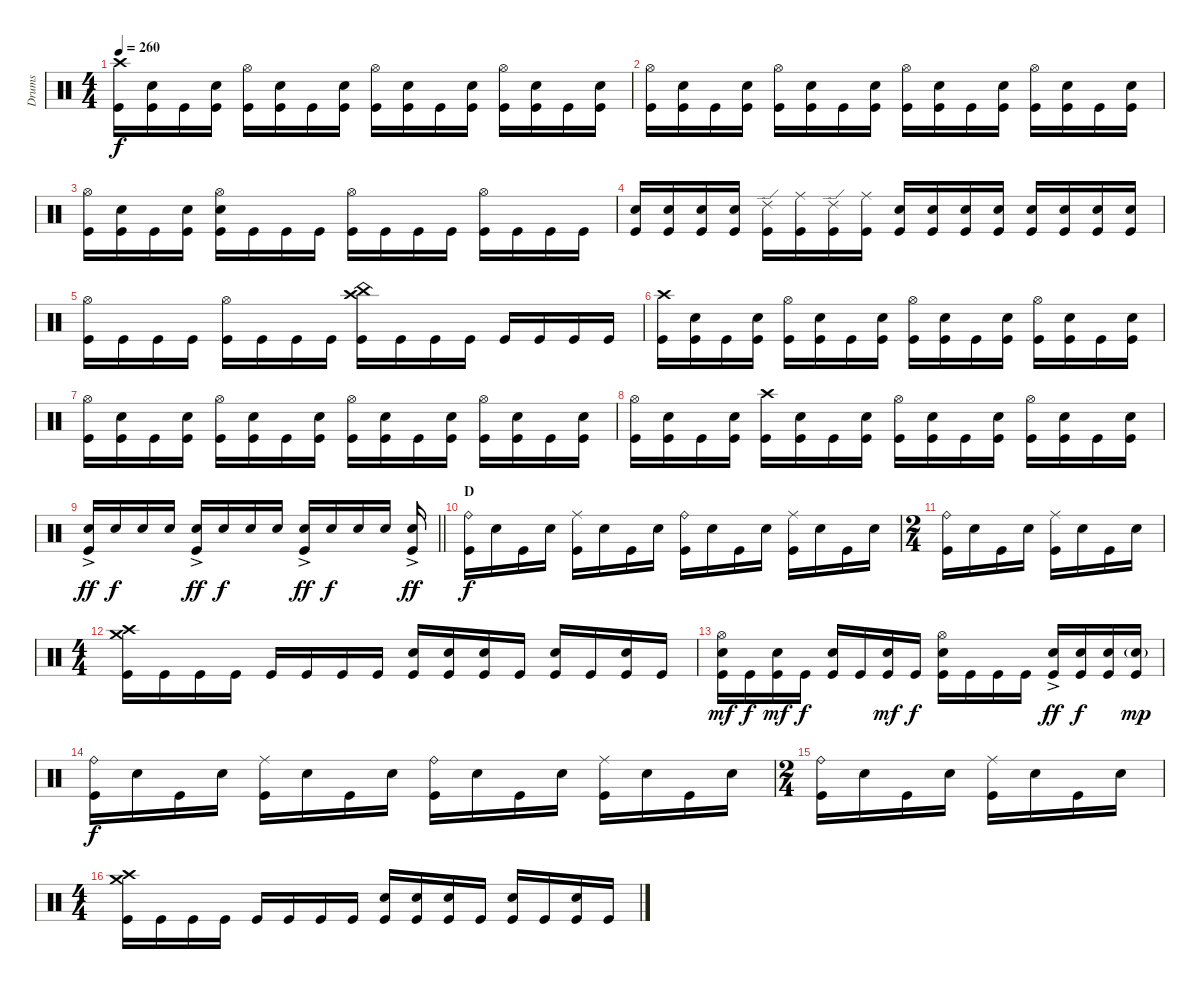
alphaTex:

\track ("Drums" "Drums") {instrument percussion}
\staff {score}
\articulation defaults
\ts (4 4)
\tempo 260
\clef neutral
\ks c
("Crash high (hit)" "Kick (hit)").16{dy f} ("Electric Snare (hit)" "Kick (hit)").16 "Kick (hit)".16 ("Electric Snare (hit)" "Kick (hit)").16 ("Hi-Hat (open)" "Kick (hit)").16 ("Electric Snare (hit)" "Kick (hit)").16 "Kick (hit)".16 ("Electric Snare (hit)" "Kick (hit)").16 ("Hi-Hat (open)" "Kick (hit)").16 ("Electric Snare (hit)" "Kick (hit)").16 "Kick (hit)".16 ("Electric Snare (hit)" "Kick (hit)").16 ("Hi-Hat (open)" "Kick (hit)").16 ("Electric Snare (hit)" "Kick (hit)").16 "Kick (hit)".16 ("Electric Snare (hit)" "Kick (hit)").16 |
("Hi-Hat (open)" "Kick (hit)").16 ("Electric Snare (hit)" "Kick (hit)").16 "Kick (hit)".16 ("Electric Snare (hit)" "Kick (hit)").16 ("Hi-Hat (open)" "Kick (hit)").16 ("Electric Snare (hit)" "Kick (hit)").16 "Kick (hit)".16 ("Electric Snare (hit)" "Kick (hit)").16 ("Hi-Hat (open)" "Kick (hit)").16 ("Electric Snare (hit)" "Kick (hit)").16 "Kick (hit)".16 ("Electric Snare (hit)" "Kick (hit)").16 ("Hi-Hat (open)" "Kick (hit)").16 ("Electric Snare (hit)" "Kick (hit)").16 "Kick (hit)".16 ("Electric Snare (hit)" "Kick (hit)").16 |
("Hi-Hat (open)" "Kick (hit)").16 ("Electric Snare (hit)" "Kick (hit)").16 "Kick (hit)".16 ("Electric Snare (hit)" "Kick (hit)").16 ("Hi-Hat (open)" "Electric Snare (hit)" "Kick (hit)").16 "Kick (hit)".16 "Kick (hit)".16 "Kick (hit)".16 ("Hi-Hat (open)" "Kick (hit)").16 "Kick (hit)".16 "Kick (hit)".16 "Kick (hit)".16 ("Hi-Hat (open)" "Kick (hit)").16 "Kick (hit)".16 "Kick (hit)".16 "Kick (hit)".16 |
("Electric Snare (hit)" "Kick (hit)").16 ("Electric Snare (hit)" "Kick (hit)").16 ("Electric Snare (hit)" "Kick (hit)").16 ("Electric Snare (hit)" "Kick (hit)").16 ("Ride (edge) 2" "Kick (hit)").16 ("Ride (middle)" "Kick (hit)").16 ("Ride (edge) 2" "Kick (hit)").16 ("Ride (middle)" "Kick (hit)").16 ("Electric Snare (hit)" "Kick (hit)").16 ("Electric Snare (hit)" "Kick (hit)").16 ("Electric Snare (hit)" "Kick (hit)").16 ("Electric Snare (hit)" "Kick (hit)").16 ("Electric Snare (hit)" "Kick (hit)").16 ("Electric Snare (hit)" "Kick (hit)").16 ("Electric Snare (hit)" "Kick (hit)").16 ("Electric Snare (hit)" "Kick (hit)").16 |
("Hi-Hat (open)" "Kick (hit)").16 "Kick (hit)".16 "Kick (hit)".16 "Kick (hit)".16 ("Hi-Hat (open)" "Kick (hit)").16 "Kick (hit)".16 "Kick (hit)".16 "Kick (hit)".16 ("China (hit)" "Crash high (hit)" "Kick (hit)").16 "Kick (hit)".16 "Kick (hit)".16 "Kick (hit)".16 "Kick (hit)".16 "Kick (hit)".16 "Kick (hit)".16 "Kick (hit)".16 |
("Crash high (hit)" "Kick (hit)").16 ("Electric Snare (hit)" "Kick (hit)").16 "Kick (hit)".16 ("Electric Snare (hit)" "Kick (hit)").16 ("Hi-Hat (open)" "Kick (hit)").16 ("Electric Snare (hit)" "Kick (hit)").16 "Kick (hit)".16 ("Electric Snare (hit)" "Kick (hit)").16 ("Hi-Hat (open)" "Kick (hit)").16 ("Electric Snare (hit)" "Kick (hit)").16 "Kick (hit)".16 ("Electric Snare (hit)" "Kick (hit)").16 ("Hi-Hat (open)" "Kick (hit)").16 ("Electric Snare (hit)" "Kick (hit)").16 "Kick (hit)".16 ("Electric Snare (hit)" "Kick (hit)").16 |
("Hi-Hat (open)" "Kick (hit)").16 ("Electric Snare (hit)" "Kick (hit)").16 "Kick (hit)".16 ("Electric Snare (hit)" "Kick (hit)").16 ("Hi-Hat (open)" "Kick (hit)").16 ("Electric Snare (hit)" "Kick (hit)").16 "Kick (hit)".16 ("Electric Snare (hit)" "Kick (hit)").16 ("Hi-Hat (open)" "Kick (hit)").16 ("Electric Snare (hit)" "Kick (hit)").16 "Kick (hit)".16 ("Electric Snare (hit)" "Kick (hit)").16 ("Hi-Hat (open)" "Kick (hit)").16 ("Electric Snare (hit)" "Kick (hit)").16 "Kick (hit)".16 ("Electric Snare (hit)" "Kick (hit)").16 |
("Hi-Hat (open)" "Kick (hit)").16 ("Electric Snare (hit)" "Kick (hit)").16 "Kick (hit)".16 ("Electric Snare (hit)" "Kick (hit)").16 ("Crash high (hit)" "Kick (hit)").16 ("Electric Snare (hit)" "Kick (hit)").16 "Kick (hit)".16 ("Electric Snare (hit)" "Kick (hit)").16 ("Hi-Hat (open)" "Kick (hit)").16 ("Electric Snare (hit)" "Kick (hit)").16 "Kick (hit)".16 ("Electric Snare (hit)" "Kick (hit)").16 ("Hi-Hat (open)" "Kick (hit)").16 ("Electric Snare (hit)" "Kick (hit)").16 "Kick (hit)".16 ("Electric Snare (hit)" "Kick (hit)").16 |
\barLineRight lightlight
("Electric Snare (hit)"{ac} "Kick (hit)").16{dy ff} "Electric Snare (hit)".16{dy f} "Electric Snare (hit)".16 "Electric Snare (hit)".16 ("Electric Snare (hit)"{ac} "Kick (hit)").16{dy ff} "Electric Snare (hit)".16{dy f} "Electric Snare (hit)".16 "Electric Snare (hit)".16 ("Electric Snare (hit)"{ac} "Kick (hit)").16{dy ff} "Electric Snare (hit)".16{dy f} "Electric Snare (hit)".16 "Electric Snare (hit)".16 ("Electric Snare (hit)"{ac} "Kick (hit)").16{dy ff} |
\section ("" "D")
("Ride (bell)" "Kick (hit)").16{dy f} "Electric Snare (hit)".16 "Kick (hit)".16 "Electric Snare (hit)".16 ("Ride (middle)" "Kick (hit)").16 "Electric Snare (hit)".16 "Kick (hit)".16 "Electric Snare (hit)".16 ("Ride (bell)" "Kick (hit)").16 "Electric Snare (hit)".16 "Kick (hit)".16 "Electric Snare (hit)".16 ("Ride (middle)" "Kick (hit)").16 "Electric Snare (hit)".16 "Kick (hit)".16 "Electric Snare (hit)".16 |
\ts (2 4)
("Ride (bell)" "Kick (hit)").16 "Electric Snare (hit)".16 "Kick (hit)".16 "Electric Snare (hit)".16 ("Ride (middle)" "Kick (hit)").16 "Electric Snare (hit)".16 "Kick (hit)".16 "Electric Snare (hit)".16 |
\ts (4 4)
("Crash high (hit)" "Crash medium (hit)" "Kick (hit)").16 "Kick (hit)".16 "Kick (hit)".16 "Kick (hit)".16 "Kick (hit)".16 "Kick (hit)".16 "Kick (hit)".16 "Kick (hit)".16 ("Electric Snare (hit)" "Kick (hit)").16 ("Electric Snare (hit)" "Kick (hit)").16 ("Electric Snare (hit)" "Kick (hit)").16 "Kick (hit)".16 ("Electric Snare (hit)" "Kick (hit)").16 "Kick (hit)".16 ("Electric Snare (hit)" "Kick (hit)").16 "Kick (hit)".16 |
("Hi-Hat (open)" "Electric Snare (hit)" "Kick (hit)").16{dy mf} "Kick (hit)".16{dy f} ("Electric Snare (hit)" "Kick (hit)").16{dy mf} "Kick (hit)".16{dy f} ("Electric Snare (hit)" "Kick (hit)").16 "Kick (hit)".16 ("Electric Snare (hit)" "Kick (hit)").16{dy mf} "Kick (hit)".16{dy f} ("Hi-Hat (open)" "Electric Snare (hit)" "Kick (hit)").16 "Kick (hit)".16 "Kick (hit)".16 "Kick (hit)".16 ("Electric Snare (hit)"{ac} "Kick (hit)").16{dy ff} ("Electric Snare (hit)" "Kick (hit)").16{dy f} ("Electric Snare (hit)" "Kick (hit)").16 ("Electric Snare (hit)"{g} "Kick (hit)").16{dy mp} |
("Ride (bell)" "Kick (hit)").16{dy f} "Electric Snare (hit)".16 "Kick (hit)".16 "Electric Snare (hit)".16 ("Ride (middle)" "Kick (hit)").16 "Electric Snare (hit)".16 "Kick (hit)".16 "Electric Snare (hit)".16 ("Ride (bell)" "Kick (hit)").16 "Electric Snare (hit)".16 "Kick (hit)".16 "Electric Snare (hit)".16 ("Ride (middle)" "Kick (hit)").16 "Electric Snare (hit)".16 "Kick (hit)".16 "Electric Snare (hit)".16 |
\ts (2 4)
("Ride (bell)" "Kick (hit)").16 "Electric Snare (hit)".16 "Kick (hit)".16 "Electric Snare (hit)".16 ("Ride (middle)" "Kick (hit)").16 "Electric Snare (hit)".16 "Kick (hit)".16 "Electric Snare (hit)".16 |
\ts (4 4)
("Crash high (hit)" "Crash medium (hit)" "Kick (hit)").16 "Kick (hit)".16 "Kick (hit)".16 "Kick (hit)".16 "Kick (hit)".16 "Kick (hit)".16 "Kick (hit)".16 "Kick (hit)".16 ("Electric Snare (hit)" "Kick (hit)").16 ("Electric Snare (hit)" "Kick (hit)").16 ("Electric Snare (hit)" "Kick (hit)").16 "Kick (hit)".16 ("Electric Snare (hit)" "Kick (hit)").16 "Kick (hit)".16 ("Electric Snare (hit)" "Kick (hit)").16 "Kick (hit)".16
